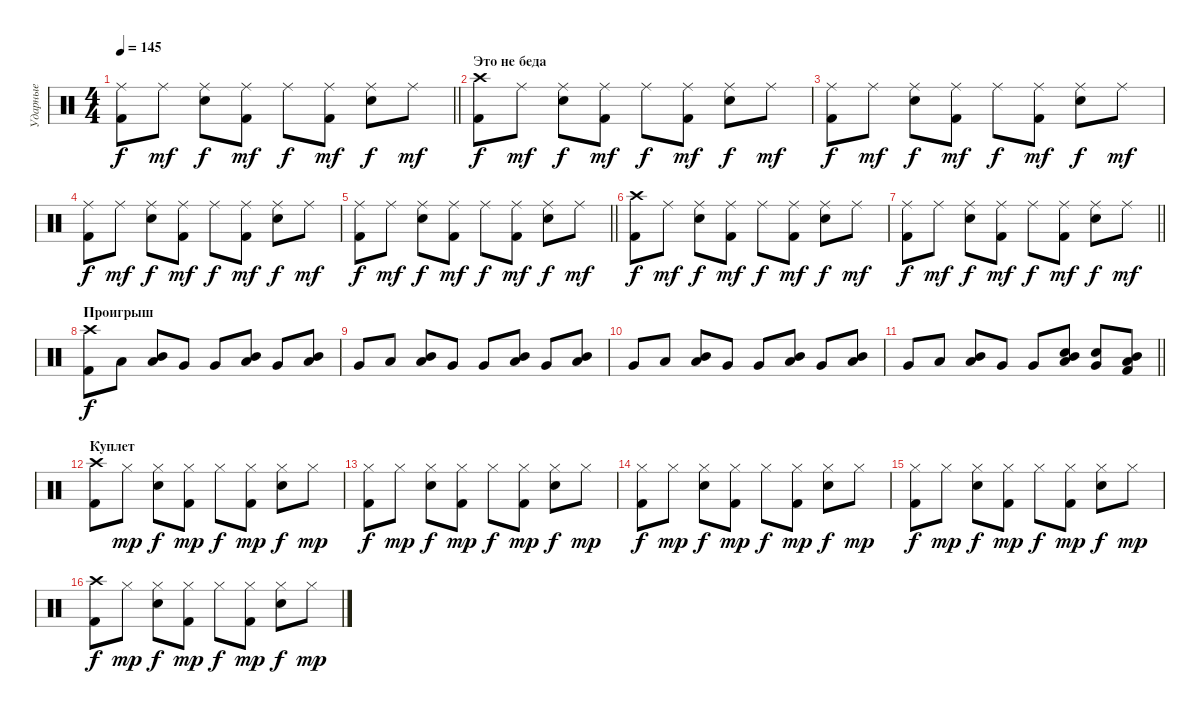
\track ("Ударные" "Ударные") {instrument percussion}
\staff {score}
\articulation defaults
\ts (4 4)
\tempo 145
\clef neutral
\barLineRight lightlight
\ks c
("Ride (middle)" "Kick (hit) 2").8{dy f} "Ride (middle)".8{dy mf} ("Ride (middle)" "Snare (hit) 2").8{dy f} ("Ride (middle)" "Kick (hit) 2").8{dy mf} "Ride (middle)".8{dy f} ("Ride (middle)" "Kick (hit) 2").8{dy mf} ("Ride (middle)" "Snare (hit) 2").8{dy f} "Ride (middle)".8{dy mf} |
\section ("" "Это не беда")
("Crash high (hit)" "Kick (hit) 2").8{dy f} "Ride (middle)".8{dy mf} ("Ride (middle)" "Snare (hit) 2").8{dy f} ("Ride (middle)" "Kick (hit) 2").8{dy mf} "Ride (middle)".8{dy f} ("Ride (middle)" "Kick (hit) 2").8{dy mf} ("Ride (middle)" "Snare (hit) 2").8{dy f} "Ride (middle)".8{dy mf} |
("Ride (middle)" "Kick (hit) 2").8{dy f} "Ride (middle)".8{dy mf} ("Ride (middle)" "Snare (hit) 2").8{dy f} ("Ride (middle)" "Kick (hit) 2").8{dy mf} "Ride (middle)".8{dy f} ("Ride (middle)" "Kick (hit) 2").8{dy mf} ("Ride (middle)" "Snare (hit) 2").8{dy f} "Ride (middle)".8{dy mf} |
("Ride (middle)" "Kick (hit) 2").8{dy f} "Ride (middle)".8{dy mf} ("Ride (middle)" "Snare (hit) 2").8{dy f} ("Ride (middle)" "Kick (hit) 2").8{dy mf} "Ride (middle)".8{dy f} ("Ride (middle)" "Kick (hit) 2").8{dy mf} ("Ride (middle)" "Snare (hit) 2").8{dy f} "Ride (middle)".8{dy mf} |
\barLineRight lightlight
("Ride (middle)" "Kick (hit) 2").8{dy f} "Ride (middle)".8{dy mf} ("Ride (middle)" "Snare (hit) 2").8{dy f} ("Ride (middle)" "Kick (hit) 2").8{dy mf} "Ride (middle)".8{dy f} ("Ride (middle)" "Kick (hit) 2").8{dy mf} ("Ride (middle)" "Snare (hit) 2").8{dy f} "Ride (middle)".8{dy mf} |
("Crash high (hit)" "Kick (hit) 2").8{dy f} "Ride (middle)".8{dy mf} ("Ride (middle)" "Snare (hit) 2").8{dy f} ("Ride (middle)" "Kick (hit) 2").8{dy mf} "Ride (middle)".8{dy f} ("Ride (middle)" "Kick (hit) 2").8{dy mf} ("Ride (middle)" "Snare (hit) 2").8{dy f} "Ride (middle)".8{dy mf} |
\barLineRight lightlight
("Ride (middle)" "Kick (hit) 2").8{dy f} "Ride (middle)".8{dy mf} ("Ride (middle)" "Snare (hit) 2").8{dy f} ("Ride (middle)" "Kick (hit) 2").8{dy mf} "Ride (middle)".8{dy f} ("Ride (middle)" "Kick (hit) 2").8{dy mf} ("Ride (middle)" "Snare (hit) 2").8{dy f} "Ride (middle)".8{dy mf} |
\section ("" "Проигрыш")
("Kick (hit) 2" "Crash high (hit)").8{dy f} "Low Tom (hit)".8 ("Low Tom (hit)" "Mid Tom (hit)").8 "Very Low Tom (hit)".8 "Very Low Tom (hit)".8 ("Low Tom (hit)" "Mid Tom (hit)").8 "Very Low Tom (hit)".8 ("Low Tom (hit)" "Mid Tom (hit)").8 |
"Very Low Tom (hit)".8 "Low Tom (hit)".8 ("Low Tom (hit)" "Mid Tom (hit)").8 "Very Low Tom (hit)".8 "Very Low Tom (hit)".8 ("Low Tom (hit)" "Mid Tom (hit)").8 "Very Low Tom (hit)".8 ("Low Tom (hit)" "Mid Tom (hit)").8 |
"Very Low Tom (hit)".8 "Low Tom (hit)".8 ("Low Tom (hit)" "Mid Tom (hit)").8 "Very Low Tom (hit)".8 "Very Low Tom (hit)".8 ("Low Tom (hit)" "Mid Tom (hit)").8 "Very Low Tom (hit)".8 ("Low Tom (hit)" "Mid Tom (hit)").8 |
\barLineRight lightlight "Very Low Tom (hit)".8 "Low Tom (hit)".8
("Low Tom (hit)" "Mid Tom (hit)").8 "Very Low Tom (hit)".8 "Very Low Tom (hit)".8 ("Snare (hit) 2" "Low Tom (hit)" "Mid Tom (hit)").8 ("Very Low Tom (hit)" "Snare (hit) 2").8 ("Low Tom (hit)" "Kick (hit) 2" "Mid Tom (hit)").8 |
\section ("" "Куплет")
("Crash high (hit)" "Kick (hit) 2").8 "Hi-Hat (closed)".8{dy mp} ("Hi-Hat (closed)" "Snare (hit) 2").8{dy f} ("Hi-Hat (closed)" "Kick (hit) 2").8{dy mp} "Hi-Hat (closed)".8{dy f} ("Hi-Hat (closed)" "Kick (hit) 2").8{dy mp} ("Hi-Hat (closed)" "Snare (hit) 2").8{dy f} "Hi-Hat (closed)".8{dy mp} |
("Hi-Hat (closed)" "Kick (hit) 2").8{dy f} "Hi-Hat (closed)".8{dy mp} ("Hi-Hat (closed)" "Snare (hit) 2").8{dy f} ("Hi-Hat (closed)" "Kick (hit) 2").8{dy mp} "Hi-Hat (closed)".8{dy f} ("Hi-Hat (closed)" "Kick (hit) 2").8{dy mp} ("Hi-Hat (closed)" "Snare (hit) 2").8{dy f} "Hi-Hat (closed)".8{dy mp} |
("Hi-Hat (closed)" "Kick (hit) 2").8{dy f} "Hi-Hat (closed)".8{dy mp} ("Hi-Hat (closed)" "Snare (hit) 2").8{dy f} ("Hi-Hat (closed)" "Kick (hit) 2").8{dy mp} "Hi-Hat (closed)".8{dy f} ("Hi-Hat (closed)" "Kick (hit) 2").8{dy mp} ("Hi-Hat (closed)" "Snare (hit) 2").8{dy f} "Hi-Hat (closed)".8{dy mp} |
("Hi-Hat (closed)" "Kick (hit) 2").8{dy f} "Hi-Hat (closed)".8{dy mp} ("Hi-Hat (closed)" "Snare (hit) 2").8{dy f} ("Hi-Hat (closed)" "Kick (hit) 2").8{dy mp} "Hi-Hat (closed)".8{dy f} ("Hi-Hat (closed)" "Kick (hit) 2").8{dy mp} ("Hi-Hat (closed)" "Snare (hit) 2").8{dy f} "Hi-Hat (closed)".8{dy mp} |
("Crash high (hit)" "Kick (hit) 2").8{dy f} "Hi-Hat (closed)".8{dy mp} ("Hi-Hat (closed)" "Snare (hit) 2").8{dy f} ("Hi-Hat (closed)" "Kick (hit) 2").8{dy mp} "Hi-Hat (closed)".8{dy f} ("Hi-Hat (closed)" "Kick (hit) 2").8{dy mp} ("Hi-Hat (closed)" "Snare (hit) 2").8{dy f} "Hi-Hat (closed)".8{dy mp}
